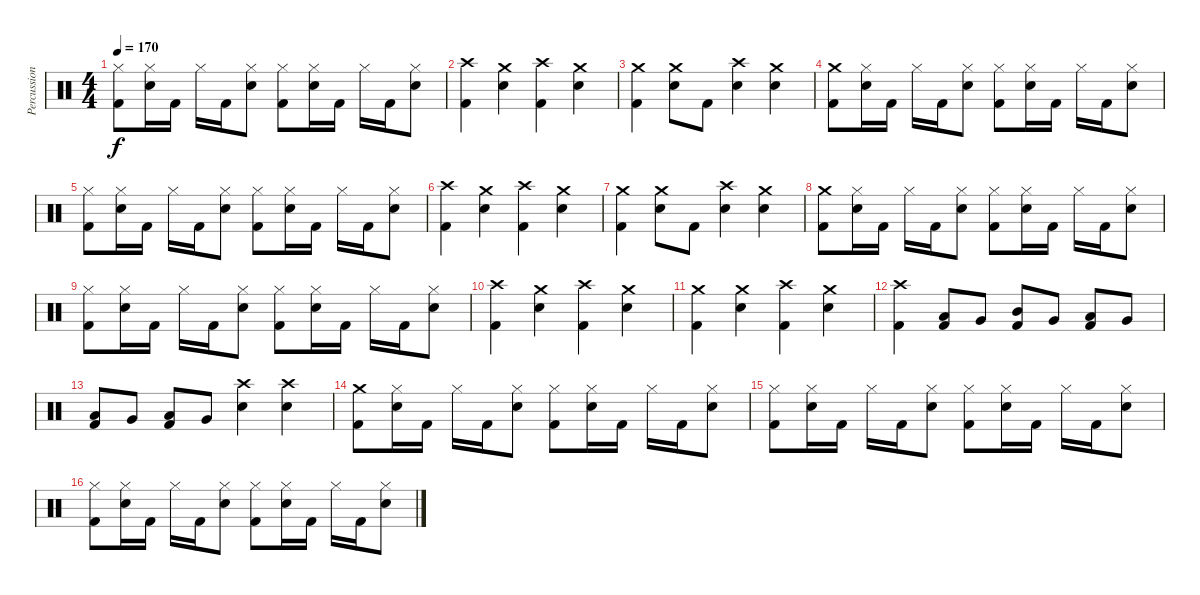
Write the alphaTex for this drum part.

\track ("Percussion" "Percussion") {instrument percussion}
\staff {score}
\articulation defaults
\ts (4 4)
\tempo 170
\clef neutral
\ks c
("Hi-Hat (closed)" "Kick (hit) 2").8{dy f} ("Hi-Hat (closed)" "Electric Snare (hit)").16 "Kick (hit) 2".16 "Hi-Hat (closed)".16 "Kick (hit) 2".16 ("Hi-Hat (closed)" "Electric Snare (hit)").8 ("Hi-Hat (closed)" "Kick (hit) 2").8 ("Hi-Hat (closed)" "Electric Snare (hit)").16 "Kick (hit) 2".16 "Hi-Hat (closed)".16 "Kick (hit) 2".16 ("Hi-Hat (closed)" "Electric Snare (hit)").8 |
("Crash high (hit)" "Kick (hit) 2").4 ("Crash medium (hit)" "Electric Snare (hit)").4 ("Crash high (hit)" "Kick (hit) 2").4 ("Crash medium (hit)" "Electric Snare (hit)").4 |
("Crash medium (hit)" "Kick (hit) 2").4 ("Crash medium (hit)" "Electric Snare (hit)").8 "Kick (hit) 2".8 ("Crash high (hit)" "Electric Snare (hit)").4 ("Crash medium (hit)" "Electric Snare (hit)").4 |
("Crash medium (hit)" "Kick (hit) 2").8 ("Hi-Hat (closed)" "Electric Snare (hit)").16 "Kick (hit) 2".16 "Hi-Hat (closed)".16 "Kick (hit) 2".16 ("Hi-Hat (closed)" "Electric Snare (hit)").8 ("Hi-Hat (closed)" "Kick (hit) 2").8 ("Hi-Hat (closed)" "Electric Snare (hit)").16 "Kick (hit) 2".16 "Hi-Hat (closed)".16 "Kick (hit) 2".16 ("Hi-Hat (closed)" "Electric Snare (hit)").8 |
("Hi-Hat (closed)" "Kick (hit) 2").8 ("Hi-Hat (closed)" "Electric Snare (hit)").16 "Kick (hit) 2".16 "Hi-Hat (closed)".16 "Kick (hit) 2".16 ("Hi-Hat (closed)" "Electric Snare (hit)").8 ("Hi-Hat (closed)" "Kick (hit) 2").8 ("Hi-Hat (closed)" "Electric Snare (hit)").16 "Kick (hit) 2".16 "Hi-Hat (closed)".16 "Kick (hit) 2".16 ("Hi-Hat (closed)" "Electric Snare (hit)").8 |
("Crash high (hit)" "Kick (hit) 2").4 ("Crash medium (hit)" "Electric Snare (hit)").4 ("Crash high (hit)" "Kick (hit) 2").4 ("Crash medium (hit)" "Electric Snare (hit)").4 |
("Crash medium (hit)" "Kick (hit) 2").4 ("Crash medium (hit)" "Electric Snare (hit)").8 "Kick (hit) 2".8 ("Crash high (hit)" "Electric Snare (hit)").4 ("Crash medium (hit)" "Electric Snare (hit)").4 |
("Crash medium (hit)" "Kick (hit) 2").8 ("Hi-Hat (closed)" "Electric Snare (hit)").16 "Kick (hit) 2".16 "Hi-Hat (closed)".16 "Kick (hit) 2".16 ("Hi-Hat (closed)" "Electric Snare (hit)").8 ("Hi-Hat (closed)" "Kick (hit) 2").8 ("Hi-Hat (closed)" "Electric Snare (hit)").16 "Kick (hit) 2".16 "Hi-Hat (closed)".16 "Kick (hit) 2".16 ("Hi-Hat (closed)" "Electric Snare (hit)").8 |
("Hi-Hat (closed)" "Kick (hit) 2").8 ("Hi-Hat (closed)" "Electric Snare (hit)").16 "Kick (hit) 2".16 "Hi-Hat (closed)".16 "Kick (hit) 2".16 ("Hi-Hat (closed)" "Electric Snare (hit)").8 ("Hi-Hat (closed)" "Kick (hit) 2").8 ("Hi-Hat (closed)" "Electric Snare (hit)").16 "Kick (hit) 2".16 "Hi-Hat (closed)".16 "Kick (hit) 2".16 ("Hi-Hat (closed)" "Electric Snare (hit)").8 |
("Crash high (hit)" "Kick (hit) 2").4 ("Crash medium (hit)" "Electric Snare (hit)").4 ("Crash high (hit)" "Kick (hit) 2").4 ("Crash medium (hit)" "Electric Snare (hit)").4 |
("Crash medium (hit)" "Kick (hit) 2").4 ("Crash medium (hit)" "Electric Snare (hit)").4 ("Crash high (hit)" "Kick (hit) 2").4 ("Crash medium (hit)" "Electric Snare (hit)").4 |
("Crash high (hit)" "Kick (hit) 2").4 ("Low Tom (hit)" "Kick (hit) 2").8 "Very Low Tom (hit)".8 ("Mid Tom (hit)" "Kick (hit) 2").8 "Very Low Tom (hit)".8 ("Low Tom (hit)" "Kick (hit) 2").8 "Very Low Tom (hit)".8 |
("Low Floor Tom (hit)" "Kick (hit) 2").8 "Very Low Tom (hit)".8 ("Low Floor Tom (hit)" "Kick (hit) 2").8 "Very Low Tom (hit)".8 ("Crash high (hit)" "Electric Snare (hit)").4 ("Crash high (hit)" "Electric Snare (hit)").4 |
("Crash medium (hit)" "Kick (hit) 2").8 ("Hi-Hat (closed)" "Electric Snare (hit)").16 "Kick (hit) 2".16 "Hi-Hat (closed)".16 "Kick (hit) 2".16 ("Hi-Hat (closed)" "Electric Snare (hit)").8 ("Hi-Hat (closed)" "Kick (hit) 2").8 ("Hi-Hat (closed)" "Electric Snare (hit)").16 "Kick (hit) 2".16 "Hi-Hat (closed)".16 "Kick (hit) 2".16 ("Hi-Hat (closed)" "Electric Snare (hit)").8 |
("Hi-Hat (closed)" "Kick (hit) 2").8 ("Hi-Hat (closed)" "Electric Snare (hit)").16 "Kick (hit) 2".16 "Hi-Hat (closed)".16 "Kick (hit) 2".16 ("Hi-Hat (closed)" "Electric Snare (hit)").8 ("Hi-Hat (closed)" "Kick (hit) 2").8 ("Hi-Hat (closed)" "Electric Snare (hit)").16 "Kick (hit) 2".16 "Hi-Hat (closed)".16 "Kick (hit) 2".16 ("Hi-Hat (closed)" "Electric Snare (hit)").8 |
("Hi-Hat (closed)" "Kick (hit) 2").8 ("Hi-Hat (closed)" "Electric Snare (hit)").16 "Kick (hit) 2".16 "Hi-Hat (closed)".16 "Kick (hit) 2".16 ("Hi-Hat (closed)" "Electric Snare (hit)").8 ("Hi-Hat (closed)" "Kick (hit) 2").8 ("Hi-Hat (closed)" "Electric Snare (hit)").16 "Kick (hit) 2".16 "Hi-Hat (closed)".16 "Kick (hit) 2".16 ("Hi-Hat (closed)" "Electric Snare (hit)").8
